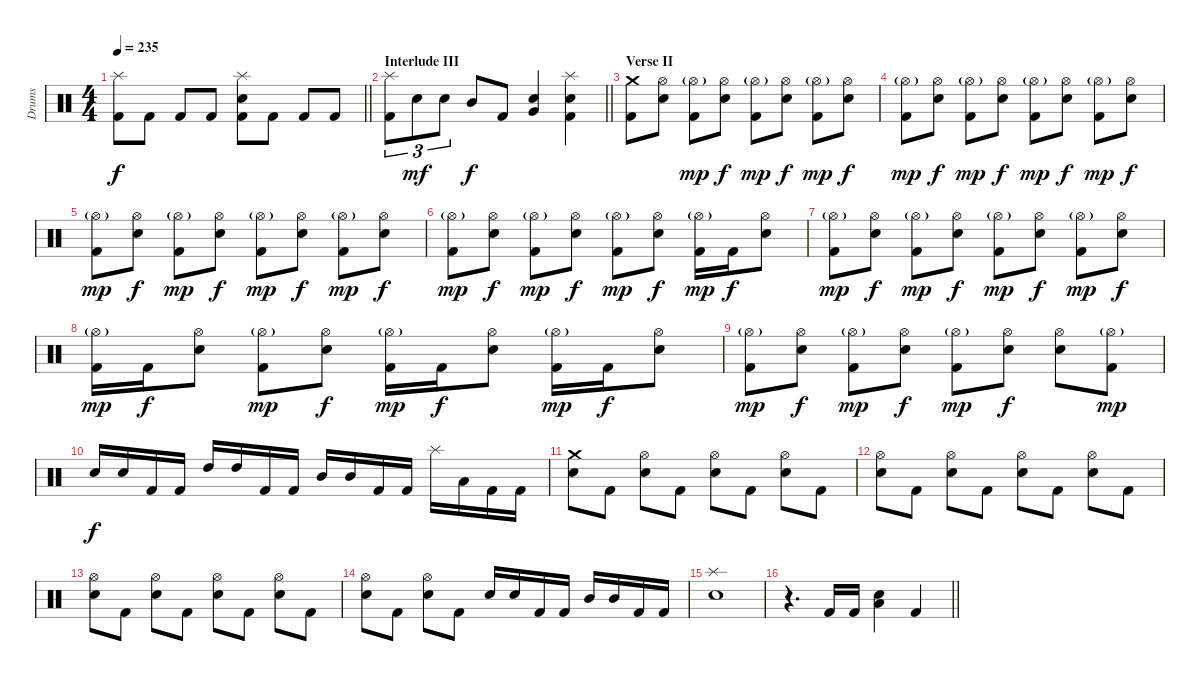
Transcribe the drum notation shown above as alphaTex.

\track ("Drums" "Drums") {instrument percussion}
\staff {score}
\articulation defaults
\ts (4 4)
\tempo 235
\clef neutral
\barLineRight lightlight
\ks c
("Splash (hit)" "Kick (hit) 2").8{dy f} "Kick (hit) 2".8 "Kick (hit) 2".8 "Kick (hit) 2".8 ("Splash (hit)" "Electric Snare (hit)" "Kick (hit) 2").8 "Kick (hit) 2".8 "Kick (hit) 2".8 "Kick (hit) 2".8 |
\section ("" "Interlude III")
\barLineRight lightlight
("Splash (hit)" "Kick (hit) 2").8{tu (3 2)} "Electric Snare (hit)".8{tu (3 2) dy mf} "Electric Snare (hit)".8{tu (3 2)} "Mid Tom (hit)".8{dy f} "Kick (hit) 2".8 ("Very Low Tom (hit)" "Electric Snare (hit)").4 ("Splash (hit)" "Electric Snare (hit)" "Kick (hit) 2").4 |
\section ("" "Verse II")
("Crash medium (hit)" "Kick (hit) 2").8 ("Hi-Hat (open)" "Electric Snare (hit)").8 ("Hi-Hat (open)"{g} "Kick (hit) 2").8{dy mp} ("Hi-Hat (open)" "Electric Snare (hit)").8{dy f} ("Hi-Hat (open)"{g} "Kick (hit) 2").8{dy mp} ("Hi-Hat (open)" "Electric Snare (hit)").8{dy f} ("Hi-Hat (open)"{g} "Kick (hit) 2").8{dy mp} ("Hi-Hat (open)" "Electric Snare (hit)").8{dy f} |
("Hi-Hat (open)"{g} "Kick (hit) 2").8{dy mp} ("Hi-Hat (open)" "Electric Snare (hit)").8{dy f} ("Hi-Hat (open)"{g} "Kick (hit) 2").8{dy mp} ("Hi-Hat (open)" "Electric Snare (hit)").8{dy f} ("Hi-Hat (open)"{g} "Kick (hit) 2").8{dy mp} ("Hi-Hat (open)" "Electric Snare (hit)").8{dy f} ("Hi-Hat (open)"{g} "Kick (hit) 2").8{dy mp} ("Hi-Hat (open)" "Electric Snare (hit)").8{dy f} |
("Hi-Hat (open)"{g} "Kick (hit) 2").8{dy mp} ("Hi-Hat (open)" "Electric Snare (hit)").8{dy f} ("Hi-Hat (open)"{g} "Kick (hit) 2").8{dy mp} ("Hi-Hat (open)" "Electric Snare (hit)").8{dy f} ("Hi-Hat (open)"{g} "Kick (hit) 2").8{dy mp} ("Hi-Hat (open)" "Electric Snare (hit)").8{dy f} ("Hi-Hat (open)"{g} "Kick (hit) 2").8{dy mp} ("Hi-Hat (open)" "Electric Snare (hit)").8{dy f} |
("Hi-Hat (open)"{g} "Kick (hit) 2").8{dy mp} ("Hi-Hat (open)" "Electric Snare (hit)").8{dy f} ("Hi-Hat (open)"{g} "Kick (hit) 2").8{dy mp} ("Hi-Hat (open)" "Electric Snare (hit)").8{dy f} ("Hi-Hat (open)"{g} "Kick (hit) 2").8{dy mp} ("Hi-Hat (open)" "Electric Snare (hit)").8{dy f} ("Hi-Hat (open)"{g} "Kick (hit) 2").16{dy mp} "Kick (hit) 2".16{dy f} ("Hi-Hat (open)" "Electric Snare (hit)").8 |
("Hi-Hat (open)"{g} "Kick (hit) 2").8{dy mp} ("Hi-Hat (open)" "Electric Snare (hit)").8{dy f} ("Hi-Hat (open)"{g} "Kick (hit) 2").8{dy mp} ("Hi-Hat (open)" "Electric Snare (hit)").8{dy f} ("Hi-Hat (open)"{g} "Kick (hit) 2").8{dy mp} ("Hi-Hat (open)" "Electric Snare (hit)").8{dy f} ("Hi-Hat (open)"{g} "Kick (hit) 2").8{dy mp} ("Hi-Hat (open)" "Electric Snare (hit)").8{dy f} |
("Hi-Hat (open)"{g} "Kick (hit) 2").16{dy mp} "Kick (hit) 2".16{dy f} ("Hi-Hat (open)" "Electric Snare (hit)").8 ("Hi-Hat (open)"{g} "Kick (hit) 2").8{dy mp} ("Hi-Hat (open)" "Electric Snare (hit)").8{dy f} ("Hi-Hat (open)"{g} "Kick (hit) 2").16{dy mp} "Kick (hit) 2".16{dy f} ("Hi-Hat (open)" "Electric Snare (hit)").8 ("Hi-Hat (open)"{g} "Kick (hit) 2").16{dy mp} "Kick (hit) 2".16{dy f} ("Hi-Hat (open)" "Electric Snare (hit)").8 |
("Hi-Hat (open)"{g} "Kick (hit) 2").8{dy mp} ("Hi-Hat (open)" "Electric Snare (hit)").8{dy f} ("Hi-Hat (open)"{g} "Kick (hit) 2").8{dy mp} ("Hi-Hat (open)" "Electric Snare (hit)").8{dy f} ("Hi-Hat (open)"{g} "Kick (hit) 2").8{dy mp} ("Hi-Hat (open)" "Electric Snare (hit)").8{dy f} ("Hi-Hat (open)" "Electric Snare (hit)").8 ("Hi-Hat (open)"{g} "Kick (hit) 2").8{dy mp} |
"Electric Snare (hit)".16{dy f} "Electric Snare (hit)".16 "Kick (hit) 2".16 "Kick (hit) 2".16 "High Tom (hit)".16 "High Tom (hit)".16 "Kick (hit) 2".16 "Kick (hit) 2".16 "Mid Tom (hit)".16 "Mid Tom (hit)".16 "Kick (hit) 2".16 "Kick (hit) 2".16 "Splash (hit)".16 "Low Tom (hit)".16 "Kick (hit) 2".16 "Kick (hit) 2".16 |
("Crash medium (hit)" "Electric Snare (hit)").8 "Kick (hit) 2".8 ("Hi-Hat (open)" "Electric Snare (hit)").8 "Kick (hit) 2".8 ("Hi-Hat (open)" "Electric Snare (hit)").8 "Kick (hit) 2".8 ("Hi-Hat (open)" "Electric Snare (hit)").8 "Kick (hit) 2".8 |
("Hi-Hat (open)" "Electric Snare (hit)").8 "Kick (hit) 2".8 ("Hi-Hat (open)" "Electric Snare (hit)").8 "Kick (hit) 2".8 ("Hi-Hat (open)" "Electric Snare (hit)").8 "Kick (hit) 2".8 ("Hi-Hat (open)" "Electric Snare (hit)").8 "Kick (hit) 2".8 |
("Hi-Hat (open)" "Electric Snare (hit)").8 "Kick (hit) 2".8 ("Hi-Hat (open)" "Electric Snare (hit)").8 "Kick (hit) 2".8 ("Hi-Hat (open)" "Electric Snare (hit)").8 "Kick (hit) 2".8 ("Hi-Hat (open)" "Electric Snare (hit)").8 "Kick (hit) 2".8 |
("Hi-Hat (open)" "Electric Snare (hit)").8 "Kick (hit) 2".8 ("Hi-Hat (open)" "Electric Snare (hit)").8 "Kick (hit) 2".8 "Electric Snare (hit)".16 "Electric Snare (hit)".16 "Kick (hit) 2".16 "Kick (hit) 2".16 "Mid Tom (hit)".16 "Mid Tom (hit)".16 "Kick (hit) 2".16 "Kick (hit) 2".16 |
("Splash (hit)" "Electric Snare (hit)").1 |
\barLineRight lightlight
r.4{d} "Kick (hit) 2".16 "Kick (hit) 2".16 ("Low Floor Tom (hit)" "Electric Snare (hit)").4 "Kick (hit) 2".4
